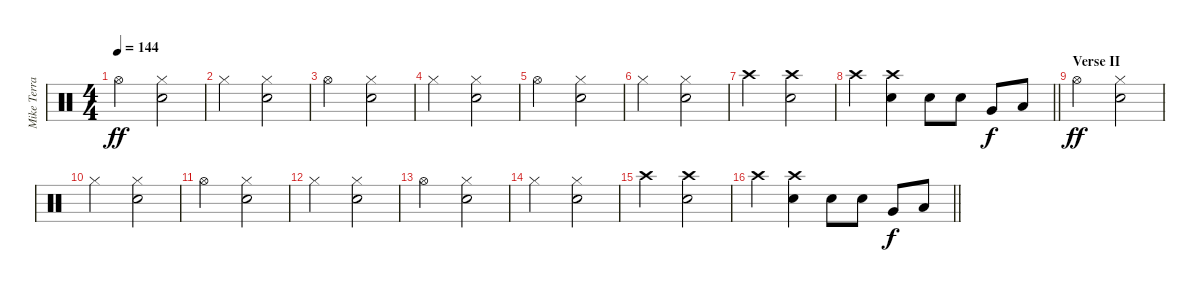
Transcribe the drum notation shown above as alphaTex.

\track ("Mike Terrana" "Mike Terra") {instrument percussion}
\staff {score}
\articulation defaults
\ts (4 4)
\tempo 144
\clef neutral
\ks c "Hi-Hat (open)".2{dy ff}
("Snare (hit) 2" "Hi-Hat (closed)").2 |
"Hi-Hat (closed)".2 ("Snare (hit) 2" "Hi-Hat (closed)").2 |
"Hi-Hat (open)".2 ("Snare (hit) 2" "Hi-Hat (closed)").2 |
"Hi-Hat (closed)".2 ("Snare (hit) 2" "Hi-Hat (closed)").2 |
"Hi-Hat (open)".2 ("Snare (hit) 2" "Hi-Hat (closed)").2 |
"Hi-Hat (closed)".2 ("Snare (hit) 2" "Hi-Hat (closed)").2 |
"Crash high (hit)".2 ("Snare (hit) 2" "Crash high (hit)").2 |
\barLineRight lightlight "Crash high (hit)".4
("Snare (hit) 2" "Crash high (hit)").4 "Snare (hit) 2".8 "Snare (hit) 2".8 "Very Low Tom (hit)".8{dy f} "Low Floor Tom (hit)".8 |
\section ("" "Verse II")
"Hi-Hat (open)".2{dy ff} ("Snare (hit) 2" "Hi-Hat (closed)").2 |
"Hi-Hat (closed)".2 ("Snare (hit) 2" "Hi-Hat (closed)").2 |
"Hi-Hat (open)".2 ("Snare (hit) 2" "Hi-Hat (closed)").2 |
"Hi-Hat (closed)".2 ("Snare (hit) 2" "Hi-Hat (closed)").2 |
"Hi-Hat (open)".2 ("Snare (hit) 2" "Hi-Hat (closed)").2 |
"Hi-Hat (closed)".2 ("Snare (hit) 2" "Hi-Hat (closed)").2 |
"Crash high (hit)".2 ("Snare (hit) 2" "Crash high (hit)").2 |
\barLineRight lightlight "Crash high (hit)".4
("Snare (hit) 2" "Crash high (hit)").4 "Snare (hit) 2".8 "Snare (hit) 2".8 "Very Low Tom (hit)".8{dy f} "Low Floor Tom (hit)".8
